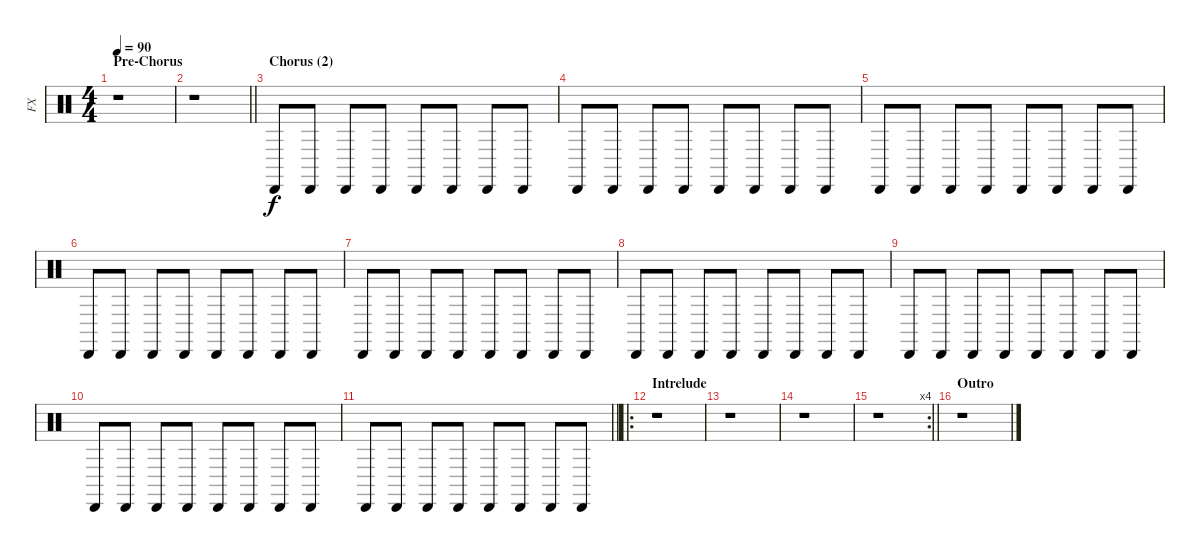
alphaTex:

\track ("FX" "FX") {instrument percussion}
\staff {score}
\articulation defaults
\ts (4 4)
\section ("" "Pre-Chorus")
\tempo 90
\clef neutral
\ks c
r.1{dy f} |
\barLineRight lightlight
r.1 |
\section ("" "Chorus (2)")
"Cabasa (hit)".8 "Cabasa (hit)".8 "Cabasa (hit)".8 "Cabasa (hit)".8 "Cabasa (hit)".8 "Cabasa (hit)".8 "Cabasa (hit)".8 "Cabasa (hit)".8 |
"Cabasa (hit)".8 "Cabasa (hit)".8 "Cabasa (hit)".8 "Cabasa (hit)".8 "Cabasa (hit)".8 "Cabasa (hit)".8 "Cabasa (hit)".8 "Cabasa (hit)".8 |
"Cabasa (hit)".8 "Cabasa (hit)".8 "Cabasa (hit)".8 "Cabasa (hit)".8 "Cabasa (hit)".8 "Cabasa (hit)".8 "Cabasa (hit)".8 "Cabasa (hit)".8 |
"Cabasa (hit)".8 "Cabasa (hit)".8 "Cabasa (hit)".8 "Cabasa (hit)".8 "Cabasa (hit)".8 "Cabasa (hit)".8 "Cabasa (hit)".8 "Cabasa (hit)".8 |
"Cabasa (hit)".8 "Cabasa (hit)".8 "Cabasa (hit)".8 "Cabasa (hit)".8 "Cabasa (hit)".8 "Cabasa (hit)".8 "Cabasa (hit)".8 "Cabasa (hit)".8 |
"Cabasa (hit)".8 "Cabasa (hit)".8 "Cabasa (hit)".8 "Cabasa (hit)".8 "Cabasa (hit)".8 "Cabasa (hit)".8 "Cabasa (hit)".8 "Cabasa (hit)".8 |
"Cabasa (hit)".8 "Cabasa (hit)".8 "Cabasa (hit)".8 "Cabasa (hit)".8 "Cabasa (hit)".8 "Cabasa (hit)".8 "Cabasa (hit)".8 "Cabasa (hit)".8 |
"Cabasa (hit)".8 "Cabasa (hit)".8 "Cabasa (hit)".8 "Cabasa (hit)".8 "Cabasa (hit)".8 "Cabasa (hit)".8 "Cabasa (hit)".8 "Cabasa (hit)".8 |
\barLineRight lightlight "Cabasa (hit)".8 "Cabasa (hit)".8 "Cabasa (hit)".8 "Cabasa (hit)".8 "Cabasa (hit)".8 "Cabasa (hit)".8 "Cabasa (hit)".8 "Cabasa (hit)".8
|
\ro
\section ("" "Intrelude")
r.1 |
r.1 |
r.1 |
\rc 4
\barLineRight lightlight
r.1 |
\section ("" "Outro")
r.1
